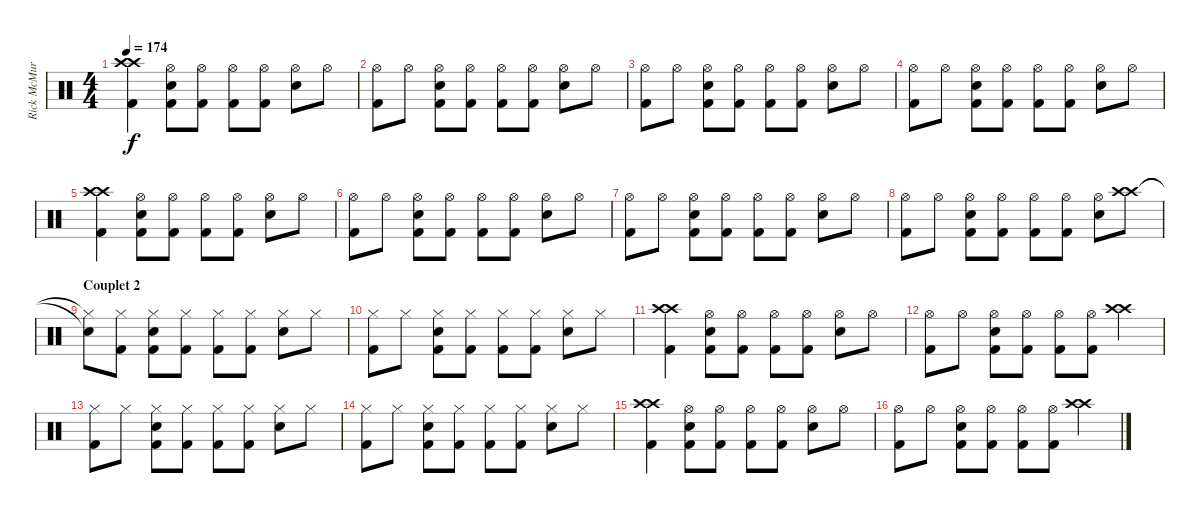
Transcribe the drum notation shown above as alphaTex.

\track ("Rick McMurray" "Rick McMur") {instrument percussion}
\staff {score}
\articulation defaults
\ts (4 4)
\tempo 174
\clef neutral
\ks c
("Crash high (hit)" "Crash high (hit)" "Kick (hit) 2").4{dy f} ("Hi-Hat (open)" "Snare (hit) 2" "Kick (hit) 2").8 ("Hi-Hat (open)" "Kick (hit) 2").8 ("Hi-Hat (open)" "Kick (hit) 2").8 ("Hi-Hat (open)" "Kick (hit) 2").8 ("Hi-Hat (open)" "Snare (hit) 2").8 "Hi-Hat (open)".8 |
("Hi-Hat (open)" "Kick (hit) 2").8 "Hi-Hat (open)".8 ("Hi-Hat (open)" "Snare (hit) 2" "Kick (hit) 2").8 ("Hi-Hat (open)" "Kick (hit) 2").8 ("Hi-Hat (open)" "Kick (hit) 2").8 ("Hi-Hat (open)" "Kick (hit) 2").8 ("Hi-Hat (open)" "Snare (hit) 2").8 "Hi-Hat (open)".8 |
("Hi-Hat (open)" "Kick (hit) 2").8 "Hi-Hat (open)".8 ("Hi-Hat (open)" "Snare (hit) 2" "Kick (hit) 2").8 ("Hi-Hat (open)" "Kick (hit) 2").8 ("Hi-Hat (open)" "Kick (hit) 2").8 ("Hi-Hat (open)" "Kick (hit) 2").8 ("Hi-Hat (open)" "Snare (hit) 2").8 "Hi-Hat (open)".8 |
("Hi-Hat (open)" "Kick (hit) 2").8 "Hi-Hat (open)".8 ("Hi-Hat (open)" "Snare (hit) 2" "Kick (hit) 2").8 ("Hi-Hat (open)" "Kick (hit) 2").8 ("Hi-Hat (open)" "Kick (hit) 2").8 ("Hi-Hat (open)" "Kick (hit) 2").8 ("Hi-Hat (open)" "Snare (hit) 2").8 "Hi-Hat (open)".8 |
("Crash high (hit)" "Crash high (hit)" "Kick (hit) 2").4 ("Hi-Hat (open)" "Snare (hit) 2" "Kick (hit) 2").8 ("Hi-Hat (open)" "Kick (hit) 2").8 ("Hi-Hat (open)" "Kick (hit) 2").8 ("Hi-Hat (open)" "Kick (hit) 2").8 ("Hi-Hat (open)" "Snare (hit) 2").8 "Hi-Hat (open)".8 |
("Hi-Hat (open)" "Kick (hit) 2").8 "Hi-Hat (open)".8 ("Hi-Hat (open)" "Snare (hit) 2" "Kick (hit) 2").8 ("Hi-Hat (open)" "Kick (hit) 2").8 ("Hi-Hat (open)" "Kick (hit) 2").8 ("Hi-Hat (open)" "Kick (hit) 2").8 ("Hi-Hat (open)" "Snare (hit) 2").8 "Hi-Hat (open)".8 |
("Hi-Hat (open)" "Kick (hit) 2").8 "Hi-Hat (open)".8 ("Hi-Hat (open)" "Snare (hit) 2" "Kick (hit) 2").8 ("Hi-Hat (open)" "Kick (hit) 2").8 ("Hi-Hat (open)" "Kick (hit) 2").8 ("Hi-Hat (open)" "Kick (hit) 2").8 ("Hi-Hat (open)" "Snare (hit) 2").8 "Hi-Hat (open)".8 |
("Hi-Hat (open)" "Kick (hit) 2").8 "Hi-Hat (open)".8 ("Hi-Hat (open)" "Snare (hit) 2" "Kick (hit) 2").8 ("Hi-Hat (open)" "Kick (hit) 2").8 ("Hi-Hat (open)" "Kick (hit) 2").8 ("Hi-Hat (open)" "Kick (hit) 2").8 ("Hi-Hat (open)" "Snare (hit) 2").8 ("Crash high (hit)" "Crash high (hit)").8 |
\section ("" "Couplet 2")
("Hi-Hat (closed)"{t} "Snare (hit)"{t}).8 ("Hi-Hat (closed)" "Kick (hit) 2").8 ("Hi-Hat (closed)" "Snare (hit) 2" "Kick (hit) 2").8 ("Hi-Hat (closed)" "Kick (hit) 2").8 ("Hi-Hat (closed)" "Kick (hit) 2").8 ("Hi-Hat (closed)" "Kick (hit) 2").8 ("Hi-Hat (closed)" "Snare (hit) 2").8 "Hi-Hat (closed)".8 |
("Hi-Hat (closed)" "Kick (hit) 2").8 "Hi-Hat (closed)".8 ("Hi-Hat (closed)" "Snare (hit) 2" "Kick (hit) 2").8 ("Hi-Hat (closed)" "Kick (hit) 2").8 ("Hi-Hat (closed)" "Kick (hit) 2").8 ("Hi-Hat (closed)" "Kick (hit) 2").8 ("Hi-Hat (closed)" "Snare (hit) 2").8 "Hi-Hat (closed)".8 |
("Crash high (hit)" "Crash high (hit)" "Kick (hit) 2").4 ("Hi-Hat (open)" "Snare (hit) 2" "Kick (hit) 2").8 ("Hi-Hat (open)" "Kick (hit) 2").8 ("Hi-Hat (open)" "Kick (hit) 2").8 ("Hi-Hat (open)" "Kick (hit) 2").8 ("Hi-Hat (open)" "Snare (hit) 2").8 "Hi-Hat (open)".8 |
("Hi-Hat (open)" "Kick (hit) 2").8 "Hi-Hat (open)".8 ("Hi-Hat (open)" "Snare (hit) 2" "Kick (hit) 2").8 ("Hi-Hat (open)" "Kick (hit) 2").8 ("Hi-Hat (open)" "Kick (hit) 2").8 ("Hi-Hat (open)" "Kick (hit) 2").8 ("Crash high (hit)" "Crash high (hit)").4 |
("Hi-Hat (closed)" "Kick (hit) 2").8 "Hi-Hat (closed)".8 ("Hi-Hat (closed)" "Snare (hit) 2" "Kick (hit) 2").8 ("Hi-Hat (closed)" "Kick (hit) 2").8 ("Hi-Hat (closed)" "Kick (hit) 2").8 ("Hi-Hat (closed)" "Kick (hit) 2").8 ("Hi-Hat (closed)" "Snare (hit) 2").8 "Hi-Hat (closed)".8 |
("Hi-Hat (closed)" "Kick (hit) 2").8 "Hi-Hat (closed)".8 ("Hi-Hat (closed)" "Snare (hit) 2" "Kick (hit) 2").8 ("Hi-Hat (closed)" "Kick (hit) 2").8 ("Hi-Hat (closed)" "Kick (hit) 2").8 ("Hi-Hat (closed)" "Kick (hit) 2").8 ("Hi-Hat (closed)" "Snare (hit) 2").8 "Hi-Hat (closed)".8 |
("Crash high (hit)" "Crash high (hit)" "Kick (hit) 2").4 ("Hi-Hat (open)" "Snare (hit) 2" "Kick (hit) 2").8 ("Hi-Hat (open)" "Kick (hit) 2").8 ("Hi-Hat (open)" "Kick (hit) 2").8 ("Hi-Hat (open)" "Kick (hit) 2").8 ("Hi-Hat (open)" "Snare (hit) 2").8 "Hi-Hat (open)".8 |
("Hi-Hat (open)" "Kick (hit) 2").8 "Hi-Hat (open)".8 ("Hi-Hat (open)" "Snare (hit) 2" "Kick (hit) 2").8 ("Hi-Hat (open)" "Kick (hit) 2").8 ("Hi-Hat (open)" "Kick (hit) 2").8 ("Hi-Hat (open)" "Kick (hit) 2").8 ("Crash high (hit)" "Crash high (hit)").4
